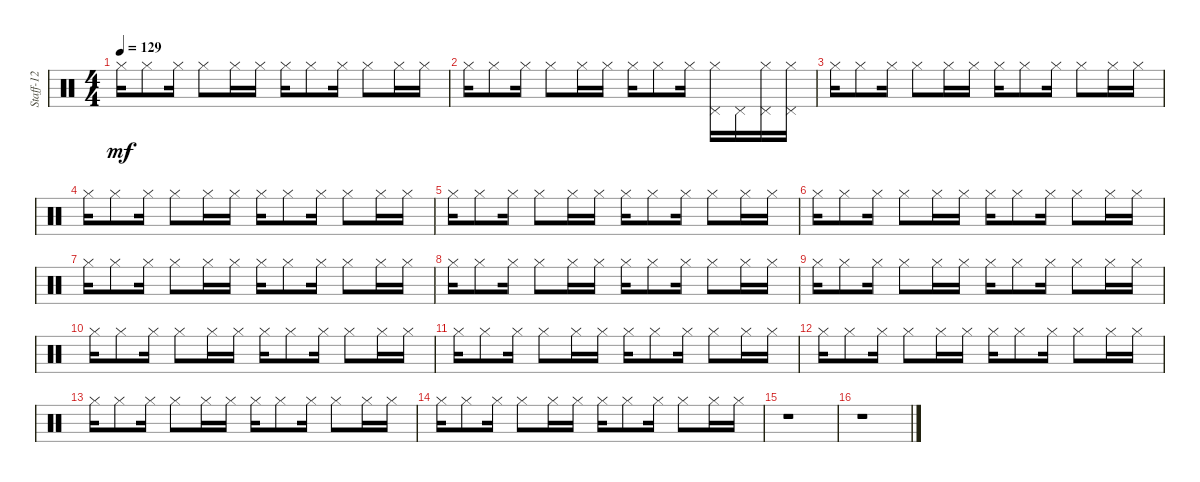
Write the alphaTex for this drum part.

\track ("Staff-12" "Staff-12") {instrument percussion}
\staff {score}
\articulation defaults
\ts (4 4)
\tempo 129
\clef neutral
\ks c "Hi-Hat (closed)".16{dy mf} "Hi-Hat (closed)".8 "Hi-Hat (closed)".16 "Hi-Hat (closed)".8 "Hi-Hat (closed)".16 "Hi-Hat (closed)".16 "Hi-Hat (closed)".16 "Hi-Hat (closed)".8 "Hi-Hat (closed)".16 "Hi-Hat (closed)".8 "Hi-Hat (closed)".16 "Hi-Hat (closed)".16
|
"Hi-Hat (closed)".16 "Hi-Hat (closed)".8 "Hi-Hat (closed)".16 "Hi-Hat (closed)".8 "Hi-Hat (closed)".16 "Hi-Hat (closed)".16 "Hi-Hat (closed)".16 "Hi-Hat (closed)".8 "Hi-Hat (closed)".16 ("Hi-Hat (closed)" "Pedal Hi-Hat (hit)").16 "Pedal Hi-Hat (hit)".16 ("Hi-Hat (closed)" "Pedal Hi-Hat (hit)").16 ("Hi-Hat (closed)" "Pedal Hi-Hat (hit)").16 |
"Hi-Hat (closed)".16 "Hi-Hat (closed)".8 "Hi-Hat (closed)".16 "Hi-Hat (closed)".8 "Hi-Hat (closed)".16 "Hi-Hat (closed)".16 "Hi-Hat (closed)".16 "Hi-Hat (closed)".8 "Hi-Hat (closed)".16 "Hi-Hat (closed)".8 "Hi-Hat (closed)".16 "Hi-Hat (closed)".16 |
"Hi-Hat (closed)".16 "Hi-Hat (closed)".8 "Hi-Hat (closed)".16 "Hi-Hat (closed)".8 "Hi-Hat (closed)".16 "Hi-Hat (closed)".16 "Hi-Hat (closed)".16 "Hi-Hat (closed)".8 "Hi-Hat (closed)".16 "Hi-Hat (closed)".8 "Hi-Hat (closed)".16 "Hi-Hat (closed)".16 |
"Hi-Hat (closed)".16 "Hi-Hat (closed)".8 "Hi-Hat (closed)".16 "Hi-Hat (closed)".8 "Hi-Hat (closed)".16 "Hi-Hat (closed)".16 "Hi-Hat (closed)".16 "Hi-Hat (closed)".8 "Hi-Hat (closed)".16 "Hi-Hat (closed)".8 "Hi-Hat (closed)".16 "Hi-Hat (closed)".16 |
"Hi-Hat (closed)".16 "Hi-Hat (closed)".8 "Hi-Hat (closed)".16 "Hi-Hat (closed)".8 "Hi-Hat (closed)".16 "Hi-Hat (closed)".16 "Hi-Hat (closed)".16 "Hi-Hat (closed)".8 "Hi-Hat (closed)".16 "Hi-Hat (closed)".8 "Hi-Hat (closed)".16 "Hi-Hat (closed)".16 |
"Hi-Hat (closed)".16 "Hi-Hat (closed)".8 "Hi-Hat (closed)".16 "Hi-Hat (closed)".8 "Hi-Hat (closed)".16 "Hi-Hat (closed)".16 "Hi-Hat (closed)".16 "Hi-Hat (closed)".8 "Hi-Hat (closed)".16 "Hi-Hat (closed)".8 "Hi-Hat (closed)".16 "Hi-Hat (closed)".16 |
"Hi-Hat (closed)".16 "Hi-Hat (closed)".8 "Hi-Hat (closed)".16 "Hi-Hat (closed)".8 "Hi-Hat (closed)".16 "Hi-Hat (closed)".16 "Hi-Hat (closed)".16 "Hi-Hat (closed)".8 "Hi-Hat (closed)".16 "Hi-Hat (closed)".8 "Hi-Hat (closed)".16 "Hi-Hat (closed)".16 |
"Hi-Hat (closed)".16 "Hi-Hat (closed)".8 "Hi-Hat (closed)".16 "Hi-Hat (closed)".8 "Hi-Hat (closed)".16 "Hi-Hat (closed)".16 "Hi-Hat (closed)".16 "Hi-Hat (closed)".8 "Hi-Hat (closed)".16 "Hi-Hat (closed)".8 "Hi-Hat (closed)".16 "Hi-Hat (closed)".16 |
"Hi-Hat (closed)".16 "Hi-Hat (closed)".8 "Hi-Hat (closed)".16 "Hi-Hat (closed)".8 "Hi-Hat (closed)".16 "Hi-Hat (closed)".16 "Hi-Hat (closed)".16 "Hi-Hat (closed)".8 "Hi-Hat (closed)".16 "Hi-Hat (closed)".8 "Hi-Hat (closed)".16 "Hi-Hat (closed)".16 |
"Hi-Hat (closed)".16 "Hi-Hat (closed)".8 "Hi-Hat (closed)".16 "Hi-Hat (closed)".8 "Hi-Hat (closed)".16 "Hi-Hat (closed)".16 "Hi-Hat (closed)".16 "Hi-Hat (closed)".8 "Hi-Hat (closed)".16 "Hi-Hat (closed)".8 "Hi-Hat (closed)".16 "Hi-Hat (closed)".16 |
"Hi-Hat (closed)".16 "Hi-Hat (closed)".8 "Hi-Hat (closed)".16 "Hi-Hat (closed)".8 "Hi-Hat (closed)".16 "Hi-Hat (closed)".16 "Hi-Hat (closed)".16 "Hi-Hat (closed)".8 "Hi-Hat (closed)".16 "Hi-Hat (closed)".8 "Hi-Hat (closed)".16 "Hi-Hat (closed)".16 |
"Hi-Hat (closed)".16 "Hi-Hat (closed)".8 "Hi-Hat (closed)".16 "Hi-Hat (closed)".8 "Hi-Hat (closed)".16 "Hi-Hat (closed)".16 "Hi-Hat (closed)".16 "Hi-Hat (closed)".8 "Hi-Hat (closed)".16 "Hi-Hat (closed)".8 "Hi-Hat (closed)".16 "Hi-Hat (closed)".16 |
"Hi-Hat (closed)".16 "Hi-Hat (closed)".8 "Hi-Hat (closed)".16 "Hi-Hat (closed)".8 "Hi-Hat (closed)".16 "Hi-Hat (closed)".16 "Hi-Hat (closed)".16 "Hi-Hat (closed)".8 "Hi-Hat (closed)".16 "Hi-Hat (closed)".8 "Hi-Hat (closed)".16 "Hi-Hat (closed)".16 |
r.1 |
r.1
